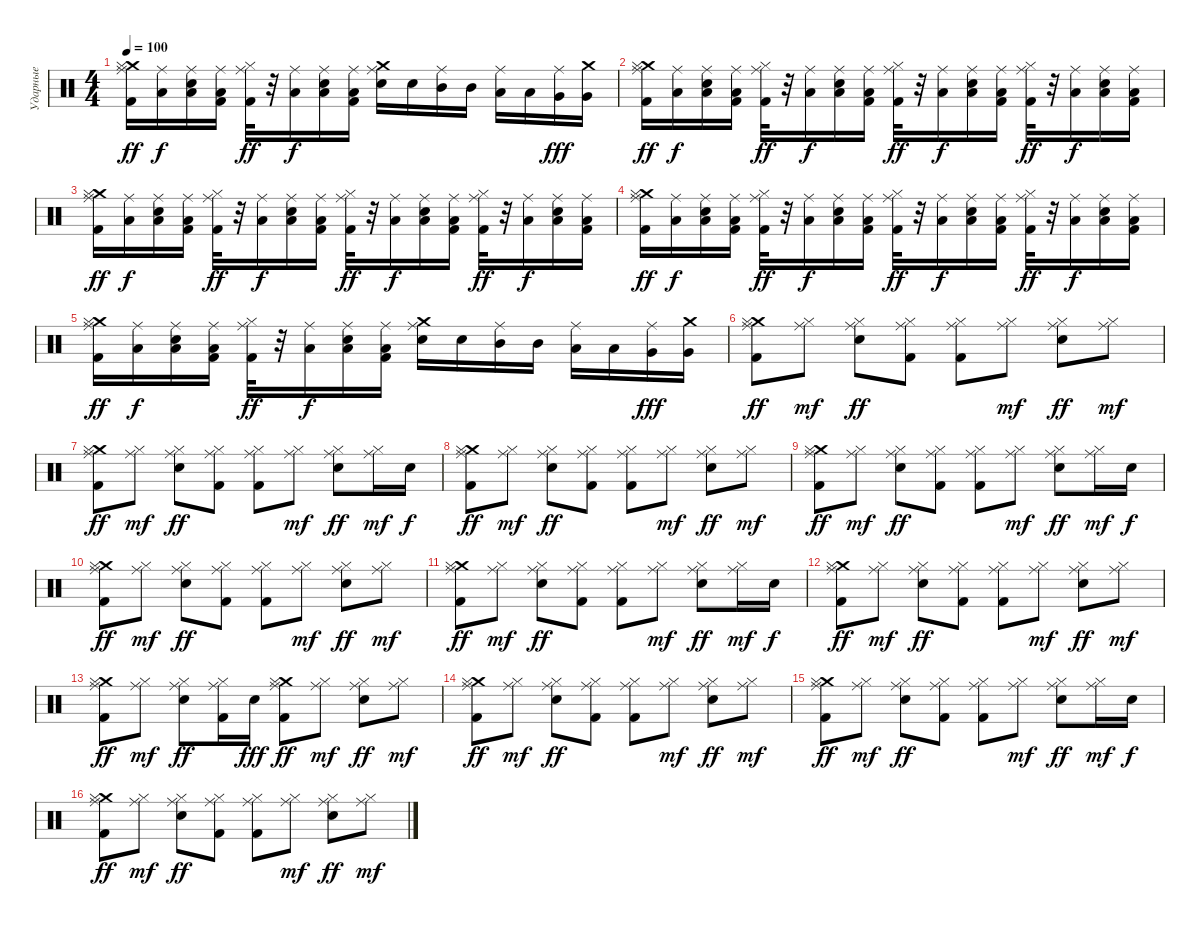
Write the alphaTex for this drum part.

\track ("Ударные" "Ударные") {instrument percussion}
\staff {score}
\articulation defaults
\ts (4 4)
\tempo 100
\clef neutral
\ks c
("Crash medium (hit)" "Ride (middle)" "Hi-Hat (closed)" "Kick (hit) 2").16{dy ff} ("Ride (middle)" "Low Floor Tom (hit)").16{dy f} ("Ride (middle)" "Low Floor Tom (hit)" "Snare (hit) 2").16 ("Ride (middle)" "Low Floor Tom (hit)" "Kick (hit) 2").16 ("Ride (middle)" "Hi-Hat (closed)" "Kick (hit) 2").32{dy ff} r.32 ("Ride (middle)" "Low Floor Tom (hit)").16{dy f} ("Ride (middle)" "Low Floor Tom (hit)" "Snare (hit) 2").16 ("Ride (middle)" "Low Floor Tom (hit)" "Kick (hit) 2").16 ("Ride (middle)" "Crash medium (hit)" "Snare (hit) 2").16 "Snare (hit) 2".16 ("Ride (middle)" "Mid Tom (hit)").16 "Mid Tom (hit)".16 ("Ride (middle)" "Low Tom (hit)").16 "Low Tom (hit)".16 ("Ride (middle)" "Very Low Tom (hit)").16{dy fff} ("Crash medium (hit)" "Very Low Tom (hit)").16 |
("Crash medium (hit)" "Ride (middle)" "Hi-Hat (closed)" "Kick (hit) 2").16{dy ff} ("Ride (middle)" "Low Floor Tom (hit)").16{dy f} ("Ride (middle)" "Low Floor Tom (hit)" "Snare (hit) 2").16 ("Ride (middle)" "Low Floor Tom (hit)" "Kick (hit) 2").16 ("Ride (middle)" "Hi-Hat (closed)" "Kick (hit) 2").32{dy ff} r.32 ("Ride (middle)" "Low Floor Tom (hit)").16{dy f} ("Ride (middle)" "Low Floor Tom (hit)" "Snare (hit) 2").16 ("Ride (middle)" "Low Floor Tom (hit)" "Kick (hit) 2").16 ("Ride (middle)" "Hi-Hat (closed)" "Kick (hit) 2").32{dy ff} r.32 ("Ride (middle)" "Low Floor Tom (hit)").16{dy f} ("Ride (middle)" "Low Floor Tom (hit)" "Snare (hit) 2").16 ("Ride (middle)" "Low Floor Tom (hit)" "Kick (hit) 2").16 ("Ride (middle)" "Hi-Hat (closed)" "Kick (hit) 2").32{dy ff} r.32 ("Ride (middle)" "Low Floor Tom (hit)").16{dy f} ("Ride (middle)" "Low Floor Tom (hit)" "Snare (hit) 2").16 ("Ride (middle)" "Low Floor Tom (hit)" "Kick (hit) 2").16 |
("Crash medium (hit)" "Ride (middle)" "Hi-Hat (closed)" "Kick (hit) 2").16{dy ff} ("Ride (middle)" "Low Floor Tom (hit)").16{dy f} ("Ride (middle)" "Low Floor Tom (hit)" "Snare (hit) 2").16 ("Ride (middle)" "Low Floor Tom (hit)" "Kick (hit) 2").16 ("Ride (middle)" "Hi-Hat (closed)" "Kick (hit) 2").32{dy ff} r.32 ("Ride (middle)" "Low Floor Tom (hit)").16{dy f} ("Ride (middle)" "Low Floor Tom (hit)" "Snare (hit) 2").16 ("Ride (middle)" "Low Floor Tom (hit)" "Kick (hit) 2").16 ("Ride (middle)" "Hi-Hat (closed)" "Kick (hit) 2").32{dy ff} r.32 ("Ride (middle)" "Low Floor Tom (hit)").16{dy f} ("Ride (middle)" "Low Floor Tom (hit)" "Snare (hit) 2").16 ("Ride (middle)" "Low Floor Tom (hit)" "Kick (hit) 2").16 ("Ride (middle)" "Hi-Hat (closed)" "Kick (hit) 2").32{dy ff} r.32 ("Ride (middle)" "Low Floor Tom (hit)").16{dy f} ("Ride (middle)" "Low Floor Tom (hit)" "Snare (hit) 2").16 ("Ride (middle)" "Low Floor Tom (hit)" "Kick (hit) 2").16 |
("Crash medium (hit)" "Ride (middle)" "Hi-Hat (closed)" "Kick (hit) 2").16{dy ff} ("Ride (middle)" "Low Floor Tom (hit)").16{dy f} ("Ride (middle)" "Low Floor Tom (hit)" "Snare (hit) 2").16 ("Ride (middle)" "Low Floor Tom (hit)" "Kick (hit) 2").16 ("Ride (middle)" "Hi-Hat (closed)" "Kick (hit) 2").32{dy ff} r.32 ("Ride (middle)" "Low Floor Tom (hit)").16{dy f} ("Ride (middle)" "Low Floor Tom (hit)" "Snare (hit) 2").16 ("Ride (middle)" "Low Floor Tom (hit)" "Kick (hit) 2").16 ("Ride (middle)" "Hi-Hat (closed)" "Kick (hit) 2").32{dy ff} r.32 ("Ride (middle)" "Low Floor Tom (hit)").16{dy f} ("Ride (middle)" "Low Floor Tom (hit)" "Snare (hit) 2").16 ("Ride (middle)" "Low Floor Tom (hit)" "Kick (hit) 2").16 ("Ride (middle)" "Hi-Hat (closed)" "Kick (hit) 2").32{dy ff} r.32 ("Ride (middle)" "Low Floor Tom (hit)").16{dy f} ("Ride (middle)" "Low Floor Tom (hit)" "Snare (hit) 2").16 ("Ride (middle)" "Low Floor Tom (hit)" "Kick (hit) 2").16 |
("Crash medium (hit)" "Ride (middle)" "Hi-Hat (closed)" "Kick (hit) 2").16{dy ff} ("Ride (middle)" "Low Floor Tom (hit)").16{dy f} ("Ride (middle)" "Low Floor Tom (hit)" "Snare (hit) 2").16 ("Ride (middle)" "Low Floor Tom (hit)" "Kick (hit) 2").16 ("Ride (middle)" "Hi-Hat (closed)" "Kick (hit) 2").32{dy ff} r.32 ("Ride (middle)" "Low Floor Tom (hit)").16{dy f} ("Ride (middle)" "Low Floor Tom (hit)" "Snare (hit) 2").16 ("Ride (middle)" "Low Floor Tom (hit)" "Kick (hit) 2").16 ("Ride (middle)" "Crash medium (hit)" "Snare (hit) 2").16 "Snare (hit) 2".16 ("Ride (middle)" "Mid Tom (hit)").16 "Mid Tom (hit)".16 ("Ride (middle)" "Low Tom (hit)").16 "Low Tom (hit)".16 ("Ride (middle)" "Very Low Tom (hit)").16{dy fff} ("Crash medium (hit)" "Very Low Tom (hit)").16 |
("Ride (middle)" "Crash medium (hit)" "Hi-Hat (closed)" "Kick (hit) 2").8{dy ff} ("Ride (middle)" "Hi-Hat (closed)").8{dy mf} ("Ride (middle)" "Hi-Hat (closed)" "Snare (hit) 2").8{dy ff} ("Ride (middle)" "Hi-Hat (closed)" "Kick (hit) 2").8 ("Ride (middle)" "Hi-Hat (closed)" "Kick (hit) 2").8 ("Ride (middle)" "Hi-Hat (closed)").8{dy mf} ("Ride (middle)" "Hi-Hat (closed)" "Snare (hit) 2").8{dy ff} ("Ride (middle)" "Hi-Hat (closed)").8{dy mf} |
("Ride (middle)" "Crash medium (hit)" "Hi-Hat (closed)" "Kick (hit) 2").8{dy ff} ("Ride (middle)" "Hi-Hat (closed)").8{dy mf} ("Ride (middle)" "Hi-Hat (closed)" "Snare (hit) 2").8{dy ff} ("Ride (middle)" "Hi-Hat (closed)" "Kick (hit) 2").8 ("Ride (middle)" "Hi-Hat (closed)" "Kick (hit) 2").8 ("Ride (middle)" "Hi-Hat (closed)").8{dy mf} ("Ride (middle)" "Hi-Hat (closed)" "Snare (hit) 2").8{dy ff} ("Ride (middle)" "Hi-Hat (closed)").16{dy mf} "Electric Snare (hit)".16{dy f} |
("Ride (middle)" "Crash medium (hit)" "Hi-Hat (closed)" "Kick (hit) 2").8{dy ff} ("Ride (middle)" "Hi-Hat (closed)").8{dy mf} ("Ride (middle)" "Hi-Hat (closed)" "Snare (hit) 2").8{dy ff} ("Ride (middle)" "Hi-Hat (closed)" "Kick (hit) 2").8 ("Ride (middle)" "Hi-Hat (closed)" "Kick (hit) 2").8 ("Ride (middle)" "Hi-Hat (closed)").8{dy mf} ("Ride (middle)" "Hi-Hat (closed)" "Snare (hit) 2").8{dy ff} ("Ride (middle)" "Hi-Hat (closed)").8{dy mf} |
("Ride (middle)" "Crash medium (hit)" "Hi-Hat (closed)" "Kick (hit) 2").8{dy ff} ("Ride (middle)" "Hi-Hat (closed)").8{dy mf} ("Ride (middle)" "Hi-Hat (closed)" "Snare (hit) 2").8{dy ff} ("Ride (middle)" "Hi-Hat (closed)" "Kick (hit) 2").8 ("Ride (middle)" "Hi-Hat (closed)" "Kick (hit) 2").8 ("Ride (middle)" "Hi-Hat (closed)").8{dy mf} ("Ride (middle)" "Hi-Hat (closed)" "Snare (hit) 2").8{dy ff} ("Ride (middle)" "Hi-Hat (closed)").16{dy mf} "Electric Snare (hit)".16{dy f} |
("Ride (middle)" "Crash medium (hit)" "Hi-Hat (closed)" "Kick (hit) 2").8{dy ff} ("Ride (middle)" "Hi-Hat (closed)").8{dy mf} ("Ride (middle)" "Hi-Hat (closed)" "Snare (hit) 2").8{dy ff} ("Ride (middle)" "Hi-Hat (closed)" "Kick (hit) 2").8 ("Ride (middle)" "Hi-Hat (closed)" "Kick (hit) 2").8 ("Ride (middle)" "Hi-Hat (closed)").8{dy mf} ("Ride (middle)" "Hi-Hat (closed)" "Snare (hit) 2").8{dy ff} ("Ride (middle)" "Hi-Hat (closed)").8{dy mf} |
("Ride (middle)" "Crash medium (hit)" "Hi-Hat (closed)" "Kick (hit) 2").8{dy ff} ("Ride (middle)" "Hi-Hat (closed)").8{dy mf} ("Ride (middle)" "Hi-Hat (closed)" "Snare (hit) 2").8{dy ff} ("Ride (middle)" "Hi-Hat (closed)" "Kick (hit) 2").8 ("Ride (middle)" "Hi-Hat (closed)" "Kick (hit) 2").8 ("Ride (middle)" "Hi-Hat (closed)").8{dy mf} ("Ride (middle)" "Hi-Hat (closed)" "Snare (hit) 2").8{dy ff} ("Ride (middle)" "Hi-Hat (closed)").16{dy mf} "Electric Snare (hit)".16{dy f} |
("Ride (middle)" "Crash medium (hit)" "Hi-Hat (closed)" "Kick (hit) 2").8{dy ff} ("Ride (middle)" "Hi-Hat (closed)").8{dy mf} ("Ride (middle)" "Hi-Hat (closed)" "Snare (hit) 2").8{dy ff} ("Ride (middle)" "Hi-Hat (closed)" "Kick (hit) 2").8 ("Ride (middle)" "Hi-Hat (closed)" "Kick (hit) 2").8 ("Ride (middle)" "Hi-Hat (closed)").8{dy mf} ("Ride (middle)" "Hi-Hat (closed)" "Snare (hit) 2").8{dy ff} ("Ride (middle)" "Hi-Hat (closed)").8{dy mf} |
("Ride (middle)" "Crash medium (hit)" "Hi-Hat (closed)" "Kick (hit) 2").8{dy ff} ("Ride (middle)" "Hi-Hat (closed)").8{dy mf} ("Ride (middle)" "Hi-Hat (closed)" "Snare (hit) 2").8{dy ff} ("Ride (middle)" "Hi-Hat (closed)" "Kick (hit) 2").16 "Electric Snare (hit)".16{dy fff} ("Crash medium (hit)" "Ride (middle)" "Hi-Hat (closed)" "Kick (hit) 2").8{dy ff} ("Ride (middle)" "Hi-Hat (closed)").8{dy mf} ("Ride (middle)" "Hi-Hat (closed)" "Snare (hit) 2").8{dy ff} ("Ride (middle)" "Hi-Hat (closed)").8{dy mf} |
("Ride (middle)" "Crash medium (hit)" "Hi-Hat (closed)" "Kick (hit) 2").8{dy ff} ("Ride (middle)" "Hi-Hat (closed)").8{dy mf} ("Ride (middle)" "Hi-Hat (closed)" "Snare (hit) 2").8{dy ff} ("Ride (middle)" "Hi-Hat (closed)" "Kick (hit) 2").8 ("Ride (middle)" "Hi-Hat (closed)" "Kick (hit) 2").8 ("Ride (middle)" "Hi-Hat (closed)").8{dy mf} ("Ride (middle)" "Hi-Hat (closed)" "Snare (hit) 2").8{dy ff} ("Ride (middle)" "Hi-Hat (closed)").8{dy mf} |
("Ride (middle)" "Crash medium (hit)" "Hi-Hat (closed)" "Kick (hit) 2").8{dy ff} ("Ride (middle)" "Hi-Hat (closed)").8{dy mf} ("Ride (middle)" "Hi-Hat (closed)" "Snare (hit) 2").8{dy ff} ("Ride (middle)" "Hi-Hat (closed)" "Kick (hit) 2").8 ("Ride (middle)" "Hi-Hat (closed)" "Kick (hit) 2").8 ("Ride (middle)" "Hi-Hat (closed)").8{dy mf} ("Ride (middle)" "Hi-Hat (closed)" "Snare (hit) 2").8{dy ff} ("Ride (middle)" "Hi-Hat (closed)").16{dy mf} "Electric Snare (hit)".16{dy f} |
("Ride (middle)" "Crash medium (hit)" "Hi-Hat (closed)" "Kick (hit) 2").8{dy ff} ("Ride (middle)" "Hi-Hat (closed)").8{dy mf} ("Ride (middle)" "Hi-Hat (closed)" "Snare (hit) 2").8{dy ff} ("Ride (middle)" "Hi-Hat (closed)" "Kick (hit) 2").8 ("Ride (middle)" "Hi-Hat (closed)" "Kick (hit) 2").8 ("Ride (middle)" "Hi-Hat (closed)").8{dy mf} ("Ride (middle)" "Hi-Hat (closed)" "Snare (hit) 2").8{dy ff} ("Ride (middle)" "Hi-Hat (closed)").8{dy mf}
